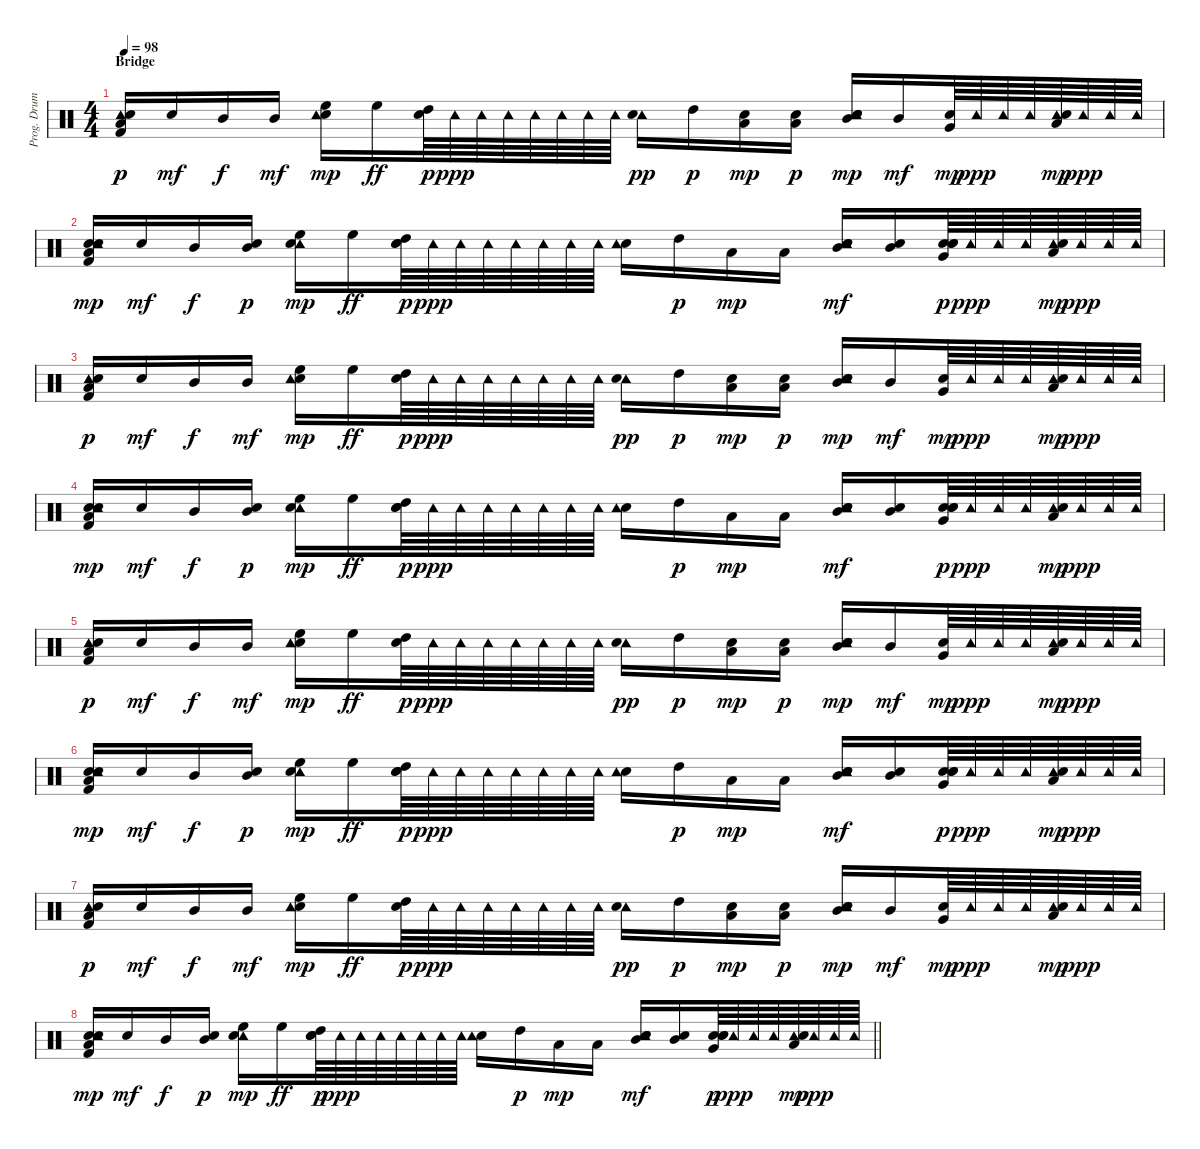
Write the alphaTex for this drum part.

\track ("Prog. Drums" "Prog. Drum") {instrument percussion}
\staff {score}
\articulation defaults
\ts (4 4)
\section ("" "Bridge")
\tempo 98
\clef neutral
\ks c
("Tambourine (hit)" "Snare (hit)" "Low Floor Tom (hit)" "Kick (hit) 2").16{dy p} "Snare (hit)".16{dy mf} "Mid Tom (hit)".16{dy f} "Mid Tom (hit)".16{dy mf} ("Snare (hit) 2" "High Floor Tom (hit)" "Tambourine (hit)").16{dy mp} "High Floor Tom (hit)".16{dy ff} ("High Tom (hit)" "Snare (hit)").64{dy p} "Tambourine (hit)".64{dy ppp} "Tambourine (hit)".64 "Tambourine (hit)".64 "Tambourine (hit)".64 "Tambourine (hit)".64 "Tambourine (hit)".64 "Tambourine (hit)".64 ("Tambourine (hit)" "Snare (hit) 2").16{dy pp} "High Tom (hit)".16{dy p} ("Snare (hit)" "Low Tom (hit)").16{dy mp} ("Low Tom (hit)" "Snare (hit)").16{dy p} ("Snare (hit) 2" "Mid Tom (hit)" "Snare (hit)" "Tambourine (hit)").16{dy mp} "Mid Tom (hit)".16{dy mf} ("Snare (hit)" "Very Low Tom (hit)").64{dy mp} "Tambourine (hit)".64{dy ppp} "Tambourine (hit)".64 "Tambourine (hit)".64 ("Tambourine (hit)" "Snare (hit) 2" "Low Tom (hit)").64{dy mp} "Tambourine (hit)".64{dy ppp} "Tambourine (hit)".64 "Tambourine (hit)".64 |
("Snare (hit)" "Snare (hit)" "Tambourine (hit)" "Kick (hit) 2" "Low Floor Tom (hit)").16{dy mp} "Snare (hit)".16{dy mf} "Mid Tom (hit)".16{dy f} ("Mid Tom (hit)" "Snare (hit)").16{dy p} ("Tambourine (hit)" "High Floor Tom (hit)" "Snare (hit) 2").16{dy mp} "High Floor Tom (hit)".16{dy ff} ("High Tom (hit)" "Snare (hit)" "Snare (hit)").64{dy p} "Tambourine (hit)".64{dy ppp} "Tambourine (hit)".64 "Tambourine (hit)".64 "Tambourine (hit)".64 "Tambourine (hit)".64 "Tambourine (hit)".64 "Tambourine (hit)".64 ("Snare (hit) 2" "Tambourine (hit)").16 "High Tom (hit)".16{dy p} "Low Tom (hit)".16{dy mp} "Low Tom (hit)".16 ("Tambourine (hit)" "Snare (hit)" "Snare (hit) 2" "Mid Tom (hit)").16{dy mf} ("Snare (hit) 2" "Mid Tom (hit)").16 ("Snare (hit) 2" "Very Low Tom (hit)" "Snare (hit)" "Snare (hit)").64{dy p} "Tambourine (hit)".64{dy ppp} "Tambourine (hit)".64 "Tambourine (hit)".64 ("Tambourine (hit)" "Snare (hit) 2" "Low Tom (hit)").64{dy mp} "Tambourine (hit)".64{dy ppp} "Tambourine (hit)".64 "Tambourine (hit)".64 |
("Tambourine (hit)" "Snare (hit)" "Low Floor Tom (hit)" "Kick (hit) 2").16{dy p} "Snare (hit)".16{dy mf} "Mid Tom (hit)".16{dy f} "Mid Tom (hit)".16{dy mf} ("Snare (hit) 2" "High Floor Tom (hit)" "Tambourine (hit)").16{dy mp} "High Floor Tom (hit)".16{dy ff} ("High Tom (hit)" "Snare (hit)").64{dy p} "Tambourine (hit)".64{dy ppp} "Tambourine (hit)".64 "Tambourine (hit)".64 "Tambourine (hit)".64 "Tambourine (hit)".64 "Tambourine (hit)".64 "Tambourine (hit)".64 ("Tambourine (hit)" "Snare (hit) 2").16{dy pp} "High Tom (hit)".16{dy p} ("Snare (hit)" "Low Tom (hit)").16{dy mp} ("Low Tom (hit)" "Snare (hit)").16{dy p} ("Snare (hit) 2" "Mid Tom (hit)" "Snare (hit)" "Tambourine (hit)").16{dy mp} "Mid Tom (hit)".16{dy mf} ("Snare (hit)" "Very Low Tom (hit)").64{dy mp} "Tambourine (hit)".64{dy ppp} "Tambourine (hit)".64 "Tambourine (hit)".64 ("Tambourine (hit)" "Snare (hit) 2" "Low Tom (hit)").64{dy mp} "Tambourine (hit)".64{dy ppp} "Tambourine (hit)".64 "Tambourine (hit)".64 |
("Snare (hit)" "Snare (hit)" "Tambourine (hit)" "Kick (hit) 2" "Low Floor Tom (hit)").16{dy mp} "Snare (hit)".16{dy mf} "Mid Tom (hit)".16{dy f} ("Mid Tom (hit)" "Snare (hit)").16{dy p} ("Tambourine (hit)" "High Floor Tom (hit)" "Snare (hit) 2").16{dy mp} "High Floor Tom (hit)".16{dy ff} ("High Tom (hit)" "Snare (hit)" "Snare (hit)").64{dy p} "Tambourine (hit)".64{dy ppp} "Tambourine (hit)".64 "Tambourine (hit)".64 "Tambourine (hit)".64 "Tambourine (hit)".64 "Tambourine (hit)".64 "Tambourine (hit)".64 ("Snare (hit) 2" "Tambourine (hit)").16 "High Tom (hit)".16{dy p} "Low Tom (hit)".16{dy mp} "Low Tom (hit)".16 ("Tambourine (hit)" "Snare (hit)" "Snare (hit) 2" "Mid Tom (hit)").16{dy mf} ("Snare (hit) 2" "Mid Tom (hit)").16 ("Snare (hit) 2" "Very Low Tom (hit)" "Snare (hit)" "Snare (hit)").64{dy p} "Tambourine (hit)".64{dy ppp} "Tambourine (hit)".64 "Tambourine (hit)".64 ("Tambourine (hit)" "Snare (hit) 2" "Low Tom (hit)").64{dy mp} "Tambourine (hit)".64{dy ppp} "Tambourine (hit)".64 "Tambourine (hit)".64 |
("Tambourine (hit)" "Snare (hit)" "Low Floor Tom (hit)" "Kick (hit) 2").16{dy p} "Snare (hit)".16{dy mf} "Mid Tom (hit)".16{dy f} "Mid Tom (hit)".16{dy mf} ("Snare (hit) 2" "High Floor Tom (hit)" "Tambourine (hit)").16{dy mp} "High Floor Tom (hit)".16{dy ff} ("High Tom (hit)" "Snare (hit)").64{dy p} "Tambourine (hit)".64{dy ppp} "Tambourine (hit)".64 "Tambourine (hit)".64 "Tambourine (hit)".64 "Tambourine (hit)".64 "Tambourine (hit)".64 "Tambourine (hit)".64 ("Tambourine (hit)" "Snare (hit) 2").16{dy pp} "High Tom (hit)".16{dy p} ("Snare (hit)" "Low Tom (hit)").16{dy mp} ("Low Tom (hit)" "Snare (hit)").16{dy p} ("Snare (hit) 2" "Mid Tom (hit)" "Snare (hit)" "Tambourine (hit)").16{dy mp} "Mid Tom (hit)".16{dy mf} ("Snare (hit)" "Very Low Tom (hit)").64{dy mp} "Tambourine (hit)".64{dy ppp} "Tambourine (hit)".64 "Tambourine (hit)".64 ("Tambourine (hit)" "Snare (hit) 2" "Low Tom (hit)").64{dy mp} "Tambourine (hit)".64{dy ppp} "Tambourine (hit)".64 "Tambourine (hit)".64 |
("Snare (hit)" "Snare (hit)" "Tambourine (hit)" "Kick (hit) 2" "Low Floor Tom (hit)").16{dy mp} "Snare (hit)".16{dy mf} "Mid Tom (hit)".16{dy f} ("Mid Tom (hit)" "Snare (hit)").16{dy p} ("Tambourine (hit)" "High Floor Tom (hit)" "Snare (hit) 2").16{dy mp} "High Floor Tom (hit)".16{dy ff} ("High Tom (hit)" "Snare (hit)" "Snare (hit)").64{dy p} "Tambourine (hit)".64{dy ppp} "Tambourine (hit)".64 "Tambourine (hit)".64 "Tambourine (hit)".64 "Tambourine (hit)".64 "Tambourine (hit)".64 "Tambourine (hit)".64 ("Snare (hit) 2" "Tambourine (hit)").16 "High Tom (hit)".16{dy p} "Low Tom (hit)".16{dy mp} "Low Tom (hit)".16 ("Tambourine (hit)" "Snare (hit)" "Snare (hit) 2" "Mid Tom (hit)").16{dy mf} ("Snare (hit) 2" "Mid Tom (hit)").16 ("Snare (hit) 2" "Very Low Tom (hit)" "Snare (hit)" "Snare (hit)").64{dy p} "Tambourine (hit)".64{dy ppp} "Tambourine (hit)".64 "Tambourine (hit)".64 ("Tambourine (hit)" "Snare (hit) 2" "Low Tom (hit)").64{dy mp} "Tambourine (hit)".64{dy ppp} "Tambourine (hit)".64 "Tambourine (hit)".64 |
("Tambourine (hit)" "Snare (hit)" "Low Floor Tom (hit)" "Kick (hit) 2").16{dy p} "Snare (hit)".16{dy mf} "Mid Tom (hit)".16{dy f} "Mid Tom (hit)".16{dy mf} ("Snare (hit) 2" "High Floor Tom (hit)" "Tambourine (hit)").16{dy mp} "High Floor Tom (hit)".16{dy ff} ("High Tom (hit)" "Snare (hit)").64{dy p} "Tambourine (hit)".64{dy ppp} "Tambourine (hit)".64 "Tambourine (hit)".64 "Tambourine (hit)".64 "Tambourine (hit)".64 "Tambourine (hit)".64 "Tambourine (hit)".64 ("Tambourine (hit)" "Snare (hit) 2").16{dy pp} "High Tom (hit)".16{dy p} ("Snare (hit)" "Low Tom (hit)").16{dy mp} ("Low Tom (hit)" "Snare (hit)").16{dy p} ("Snare (hit) 2" "Mid Tom (hit)" "Snare (hit)" "Tambourine (hit)").16{dy mp} "Mid Tom (hit)".16{dy mf} ("Snare (hit)" "Very Low Tom (hit)").64{dy mp} "Tambourine (hit)".64{dy ppp} "Tambourine (hit)".64 "Tambourine (hit)".64 ("Tambourine (hit)" "Snare (hit) 2" "Low Tom (hit)").64{dy mp} "Tambourine (hit)".64{dy ppp} "Tambourine (hit)".64 "Tambourine (hit)".64 |
\barLineRight lightlight
("Snare (hit)" "Snare (hit)" "Tambourine (hit)" "Kick (hit) 2" "Low Floor Tom (hit)").16{dy mp} "Snare (hit)".16{dy mf} "Mid Tom (hit)".16{dy f} ("Mid Tom (hit)" "Snare (hit)").16{dy p} ("Tambourine (hit)" "High Floor Tom (hit)" "Snare (hit) 2").16{dy mp} "High Floor Tom (hit)".16{dy ff} ("High Tom (hit)" "Snare (hit)" "Snare (hit)").64{dy p} "Tambourine (hit)".64{dy ppp} "Tambourine (hit)".64 "Tambourine (hit)".64 "Tambourine (hit)".64 "Tambourine (hit)".64 "Tambourine (hit)".64 "Tambourine (hit)".64 ("Snare (hit) 2" "Tambourine (hit)").16 "High Tom (hit)".16{dy p} "Low Tom (hit)".16{dy mp} "Low Tom (hit)".16 ("Tambourine (hit)" "Snare (hit)" "Snare (hit) 2" "Mid Tom (hit)").16{dy mf} ("Snare (hit) 2" "Mid Tom (hit)").16 ("Snare (hit) 2" "Very Low Tom (hit)" "Snare (hit)" "Snare (hit)").64{dy p} "Tambourine (hit)".64{dy ppp} "Tambourine (hit)".64 "Tambourine (hit)".64 ("Tambourine (hit)" "Snare (hit) 2" "Low Tom (hit)").64{dy mp} "Tambourine (hit)".64{dy ppp} "Tambourine (hit)".64 "Tambourine (hit)".64
